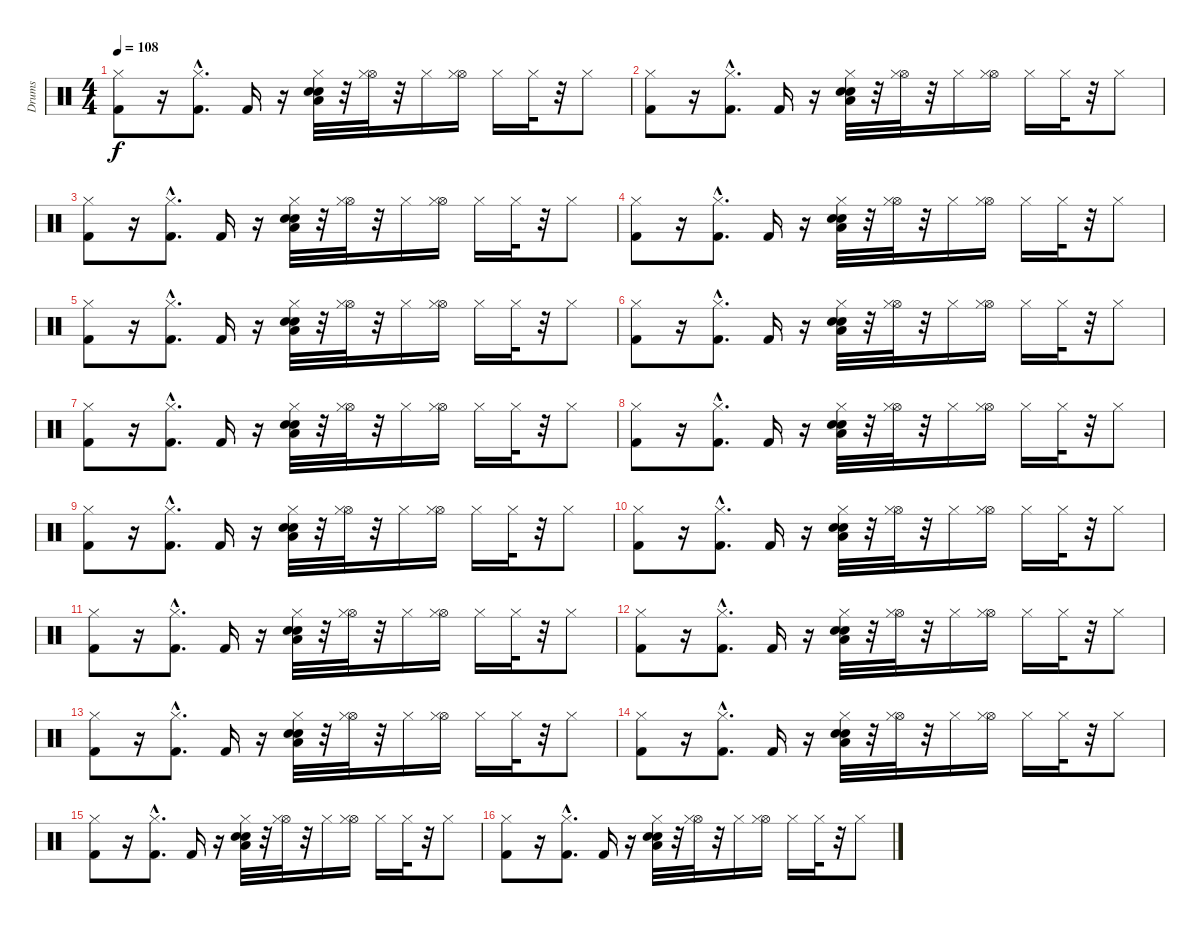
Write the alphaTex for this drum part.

\track ("Drums" "Drums") {instrument percussion}
\staff {score}
\articulation defaults
\ts (4 4)
\tempo 108
\clef neutral
\ks c
("Hi-Hat (closed)" "Kick (hit) 2").8{dy f} r.16 ("Kick (hit) 2"{hac} "Hi-Hat (closed)"{hac}).8{d} "Kick (hit) 2".16 r.16 ("Low Floor Tom (hit)" "Electric Snare (hit)" "Snare (hit) 2" "Hi-Hat (closed)").32 r.32 ("Hi-Hat (open)" "Hi-Hat (closed)").32 r.32 "Hi-Hat (closed)".16 ("Hi-Hat (open)" "Hi-Hat (closed)").16 "Hi-Hat (closed)".16 "Hi-Hat (closed)".32 r.32 "Hi-Hat (closed)".8 |
("Hi-Hat (closed)" "Kick (hit) 2").8 r.16 ("Kick (hit) 2"{hac} "Hi-Hat (closed)"{hac}).8{d} "Kick (hit) 2".16 r.16 ("Low Floor Tom (hit)" "Electric Snare (hit)" "Snare (hit) 2" "Hi-Hat (closed)").32 r.32 ("Hi-Hat (open)" "Hi-Hat (closed)").32 r.32 "Hi-Hat (closed)".16 ("Hi-Hat (open)" "Hi-Hat (closed)").16 "Hi-Hat (closed)".16 "Hi-Hat (closed)".32 r.32 "Hi-Hat (closed)".8 |
("Hi-Hat (closed)" "Kick (hit) 2").8 r.16 ("Kick (hit) 2"{hac} "Hi-Hat (closed)"{hac}).8{d} "Kick (hit) 2".16 r.16 ("Low Floor Tom (hit)" "Electric Snare (hit)" "Snare (hit) 2" "Hi-Hat (closed)").32 r.32 ("Hi-Hat (open)" "Hi-Hat (closed)").32 r.32 "Hi-Hat (closed)".16 ("Hi-Hat (open)" "Hi-Hat (closed)").16 "Hi-Hat (closed)".16 "Hi-Hat (closed)".32 r.32 "Hi-Hat (closed)".8 |
("Hi-Hat (closed)" "Kick (hit) 2").8 r.16 ("Kick (hit) 2"{hac} "Hi-Hat (closed)"{hac}).8{d} "Kick (hit) 2".16 r.16 ("Low Floor Tom (hit)" "Electric Snare (hit)" "Snare (hit) 2" "Hi-Hat (closed)").32 r.32 ("Hi-Hat (open)" "Hi-Hat (closed)").32 r.32 "Hi-Hat (closed)".16 ("Hi-Hat (open)" "Hi-Hat (closed)").16 "Hi-Hat (closed)".16 "Hi-Hat (closed)".32 r.32 "Hi-Hat (closed)".8 |
("Hi-Hat (closed)" "Kick (hit) 2").8 r.16 ("Kick (hit) 2"{hac} "Hi-Hat (closed)"{hac}).8{d} "Kick (hit) 2".16 r.16 ("Low Floor Tom (hit)" "Electric Snare (hit)" "Snare (hit) 2" "Hi-Hat (closed)").32 r.32 ("Hi-Hat (open)" "Hi-Hat (closed)").32 r.32 "Hi-Hat (closed)".16 ("Hi-Hat (open)" "Hi-Hat (closed)").16 "Hi-Hat (closed)".16 "Hi-Hat (closed)".32 r.32 "Hi-Hat (closed)".8 |
("Hi-Hat (closed)" "Kick (hit) 2").8 r.16 ("Kick (hit) 2"{hac} "Hi-Hat (closed)"{hac}).8{d} "Kick (hit) 2".16 r.16 ("Low Floor Tom (hit)" "Electric Snare (hit)" "Snare (hit) 2" "Hi-Hat (closed)").32 r.32 ("Hi-Hat (open)" "Hi-Hat (closed)").32 r.32 "Hi-Hat (closed)".16 ("Hi-Hat (open)" "Hi-Hat (closed)").16 "Hi-Hat (closed)".16 "Hi-Hat (closed)".32 r.32 "Hi-Hat (closed)".8 |
("Hi-Hat (closed)" "Kick (hit) 2").8 r.16 ("Kick (hit) 2"{hac} "Hi-Hat (closed)"{hac}).8{d} "Kick (hit) 2".16 r.16 ("Low Floor Tom (hit)" "Electric Snare (hit)" "Snare (hit) 2" "Hi-Hat (closed)").32 r.32 ("Hi-Hat (open)" "Hi-Hat (closed)").32 r.32 "Hi-Hat (closed)".16 ("Hi-Hat (open)" "Hi-Hat (closed)").16 "Hi-Hat (closed)".16 "Hi-Hat (closed)".32 r.32 "Hi-Hat (closed)".8 |
("Hi-Hat (closed)" "Kick (hit) 2").8 r.16 ("Kick (hit) 2"{hac} "Hi-Hat (closed)"{hac}).8{d} "Kick (hit) 2".16 r.16 ("Low Floor Tom (hit)" "Electric Snare (hit)" "Snare (hit) 2" "Hi-Hat (closed)").32 r.32 ("Hi-Hat (open)" "Hi-Hat (closed)").32 r.32 "Hi-Hat (closed)".16 ("Hi-Hat (open)" "Hi-Hat (closed)").16 "Hi-Hat (closed)".16 "Hi-Hat (closed)".32 r.32 "Hi-Hat (closed)".8 |
("Hi-Hat (closed)" "Kick (hit) 2").8 r.16 ("Kick (hit) 2"{hac} "Hi-Hat (closed)"{hac}).8{d} "Kick (hit) 2".16 r.16 ("Low Floor Tom (hit)" "Electric Snare (hit)" "Snare (hit) 2" "Hi-Hat (closed)").32 r.32 ("Hi-Hat (open)" "Hi-Hat (closed)").32 r.32 "Hi-Hat (closed)".16 ("Hi-Hat (open)" "Hi-Hat (closed)").16 "Hi-Hat (closed)".16 "Hi-Hat (closed)".32 r.32 "Hi-Hat (closed)".8 |
("Hi-Hat (closed)" "Kick (hit) 2").8 r.16 ("Kick (hit) 2"{hac} "Hi-Hat (closed)"{hac}).8{d} "Kick (hit) 2".16 r.16 ("Low Floor Tom (hit)" "Electric Snare (hit)" "Snare (hit) 2" "Hi-Hat (closed)").32 r.32 ("Hi-Hat (open)" "Hi-Hat (closed)").32 r.32 "Hi-Hat (closed)".16 ("Hi-Hat (open)" "Hi-Hat (closed)").16 "Hi-Hat (closed)".16 "Hi-Hat (closed)".32 r.32 "Hi-Hat (closed)".8 |
("Hi-Hat (closed)" "Kick (hit) 2").8 r.16 ("Kick (hit) 2"{hac} "Hi-Hat (closed)"{hac}).8{d} "Kick (hit) 2".16 r.16 ("Low Floor Tom (hit)" "Electric Snare (hit)" "Snare (hit) 2" "Hi-Hat (closed)").32 r.32 ("Hi-Hat (open)" "Hi-Hat (closed)").32 r.32 "Hi-Hat (closed)".16 ("Hi-Hat (open)" "Hi-Hat (closed)").16 "Hi-Hat (closed)".16 "Hi-Hat (closed)".32 r.32 "Hi-Hat (closed)".8 |
("Hi-Hat (closed)" "Kick (hit) 2").8 r.16 ("Kick (hit) 2"{hac} "Hi-Hat (closed)"{hac}).8{d} "Kick (hit) 2".16 r.16 ("Low Floor Tom (hit)" "Electric Snare (hit)" "Snare (hit) 2" "Hi-Hat (closed)").32 r.32 ("Hi-Hat (open)" "Hi-Hat (closed)").32 r.32 "Hi-Hat (closed)".16 ("Hi-Hat (open)" "Hi-Hat (closed)").16 "Hi-Hat (closed)".16 "Hi-Hat (closed)".32 r.32 "Hi-Hat (closed)".8 |
("Hi-Hat (closed)" "Kick (hit) 2").8 r.16 ("Kick (hit) 2"{hac} "Hi-Hat (closed)"{hac}).8{d} "Kick (hit) 2".16 r.16 ("Low Floor Tom (hit)" "Electric Snare (hit)" "Snare (hit) 2" "Hi-Hat (closed)").32 r.32 ("Hi-Hat (open)" "Hi-Hat (closed)").32 r.32 "Hi-Hat (closed)".16 ("Hi-Hat (open)" "Hi-Hat (closed)").16 "Hi-Hat (closed)".16 "Hi-Hat (closed)".32 r.32 "Hi-Hat (closed)".8 |
("Hi-Hat (closed)" "Kick (hit) 2").8 r.16 ("Kick (hit) 2"{hac} "Hi-Hat (closed)"{hac}).8{d} "Kick (hit) 2".16 r.16 ("Low Floor Tom (hit)" "Electric Snare (hit)" "Snare (hit) 2" "Hi-Hat (closed)").32 r.32 ("Hi-Hat (open)" "Hi-Hat (closed)").32 r.32 "Hi-Hat (closed)".16 ("Hi-Hat (open)" "Hi-Hat (closed)").16 "Hi-Hat (closed)".16 "Hi-Hat (closed)".32 r.32 "Hi-Hat (closed)".8 |
("Hi-Hat (closed)" "Kick (hit) 2").8 r.16 ("Kick (hit) 2"{hac} "Hi-Hat (closed)"{hac}).8{d} "Kick (hit) 2".16 r.16 ("Low Floor Tom (hit)" "Electric Snare (hit)" "Snare (hit) 2" "Hi-Hat (closed)").32 r.32 ("Hi-Hat (open)" "Hi-Hat (closed)").32 r.32 "Hi-Hat (closed)".16 ("Hi-Hat (open)" "Hi-Hat (closed)").16 "Hi-Hat (closed)".16 "Hi-Hat (closed)".32 r.32 "Hi-Hat (closed)".8 |
("Hi-Hat (closed)" "Kick (hit) 2").8 r.16 ("Kick (hit) 2"{hac} "Hi-Hat (closed)"{hac}).8{d} "Kick (hit) 2".16 r.16 ("Low Floor Tom (hit)" "Electric Snare (hit)" "Snare (hit) 2" "Hi-Hat (closed)").32 r.32 ("Hi-Hat (open)" "Hi-Hat (closed)").32 r.32 "Hi-Hat (closed)".16 ("Hi-Hat (open)" "Hi-Hat (closed)").16 "Hi-Hat (closed)".16 "Hi-Hat (closed)".32 r.32 "Hi-Hat (closed)".8
